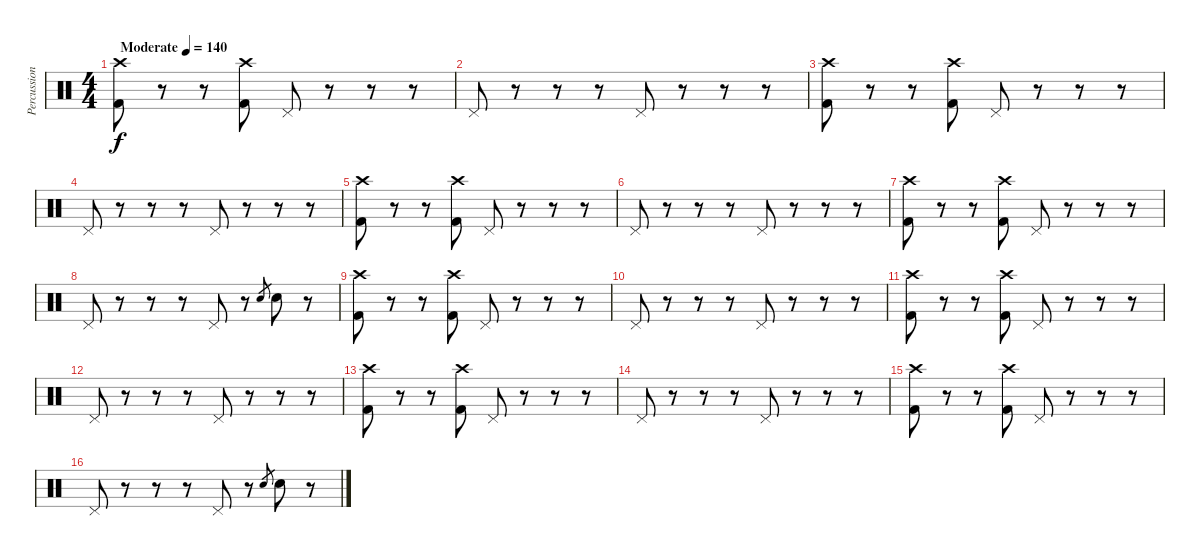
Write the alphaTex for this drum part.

\track ("Percussion" "Percussion") {instrument percussion}
\staff {score}
\articulation defaults
\ts (4 4)
\tempo (140 "Moderate")
\clef neutral
\ks c
("Crash high (hit)" "Kick (hit) 2").8{dy f} r.8 r.8 ("Crash high (hit)" "Kick (hit) 2").8 "Pedal Hi-Hat (hit)".8 r.8 r.8 r.8 |
"Pedal Hi-Hat (hit)".8 r.8 r.8 r.8 "Pedal Hi-Hat (hit)".8 r.8 r.8 r.8 |
("Crash high (hit)" "Kick (hit) 2").8 r.8 r.8 ("Crash high (hit)" "Kick (hit) 2").8 "Pedal Hi-Hat (hit)".8 r.8 r.8 r.8 |
"Pedal Hi-Hat (hit)".8 r.8 r.8 r.8 "Pedal Hi-Hat (hit)".8 r.8 r.8 r.8 |
("Crash high (hit)" "Kick (hit) 2").8 r.8 r.8 ("Crash high (hit)" "Kick (hit) 2").8 "Pedal Hi-Hat (hit)".8 r.8 r.8 r.8 |
"Pedal Hi-Hat (hit)".8 r.8 r.8 r.8 "Pedal Hi-Hat (hit)".8 r.8 r.8 r.8 |
("Crash high (hit)" "Kick (hit) 2").8 r.8 r.8 ("Crash high (hit)" "Kick (hit) 2").8 "Pedal Hi-Hat (hit)".8 r.8 r.8 r.8 |
"Pedal Hi-Hat (hit)".8 r.8 r.8 r.8 "Pedal Hi-Hat (hit)".8 r.8 "Electric Snare (hit)".8{gr} "Electric Snare (hit)".8 r.8 |
("Crash high (hit)" "Kick (hit) 2").8 r.8 r.8 ("Crash high (hit)" "Kick (hit) 2").8 "Pedal Hi-Hat (hit)".8 r.8 r.8 r.8 |
"Pedal Hi-Hat (hit)".8 r.8 r.8 r.8 "Pedal Hi-Hat (hit)".8 r.8 r.8 r.8 |
("Crash high (hit)" "Kick (hit) 2").8 r.8 r.8 ("Crash high (hit)" "Kick (hit) 2").8 "Pedal Hi-Hat (hit)".8 r.8 r.8 r.8 |
"Pedal Hi-Hat (hit)".8 r.8 r.8 r.8 "Pedal Hi-Hat (hit)".8 r.8 r.8 r.8 |
("Crash high (hit)" "Kick (hit) 2").8 r.8 r.8 ("Crash high (hit)" "Kick (hit) 2").8 "Pedal Hi-Hat (hit)".8 r.8 r.8 r.8 |
"Pedal Hi-Hat (hit)".8 r.8 r.8 r.8 "Pedal Hi-Hat (hit)".8 r.8 r.8 r.8 |
("Crash high (hit)" "Kick (hit) 2").8 r.8 r.8 ("Crash high (hit)" "Kick (hit) 2").8 "Pedal Hi-Hat (hit)".8 r.8 r.8 r.8 |
"Pedal Hi-Hat (hit)".8 r.8 r.8 r.8 "Pedal Hi-Hat (hit)".8 r.8 "Electric Snare (hit)".8{gr} "Electric Snare (hit)".8 r.8
